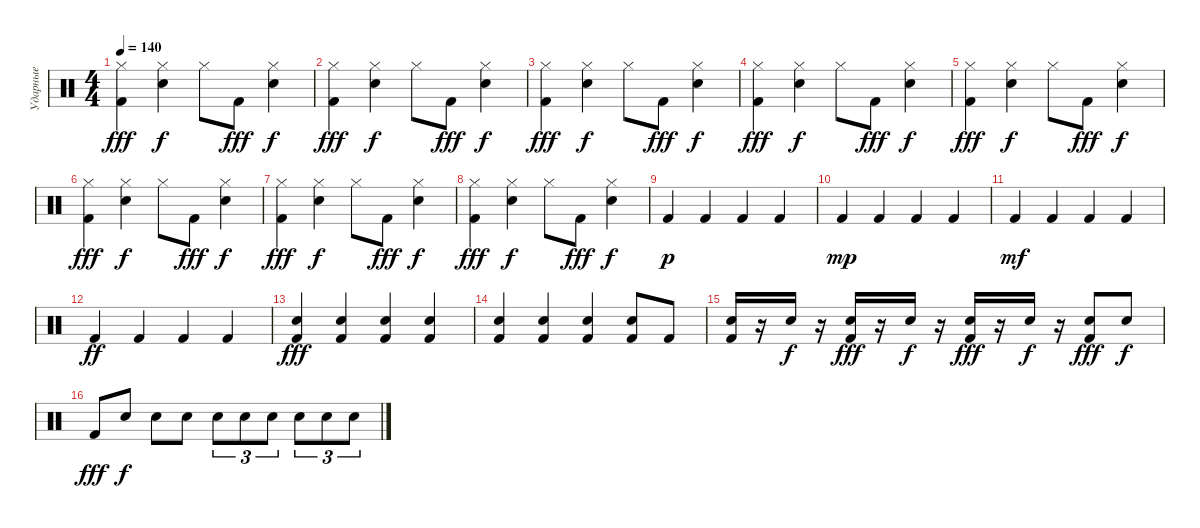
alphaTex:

\track ("Ударные" "Ударные") {instrument percussion}
\staff {score}
\articulation defaults
\ts (4 4)
\tempo 140
\clef neutral
\ks c
("Hi-Hat (closed)" "Kick (hit) 2").4{dy fff} ("Hi-Hat (closed)" "Snare (hit) 2").4{dy f} "Hi-Hat (closed)".8 "Kick (hit) 2".8{dy fff} ("Hi-Hat (closed)" "Snare (hit) 2").4{dy f} |
("Hi-Hat (closed)" "Kick (hit) 2").4{dy fff} ("Hi-Hat (closed)" "Snare (hit) 2").4{dy f} "Hi-Hat (closed)".8 "Kick (hit) 2".8{dy fff} ("Hi-Hat (closed)" "Snare (hit) 2").4{dy f} |
("Hi-Hat (closed)" "Kick (hit) 2").4{dy fff} ("Hi-Hat (closed)" "Snare (hit) 2").4{dy f} "Hi-Hat (closed)".8 "Kick (hit) 2".8{dy fff} ("Hi-Hat (closed)" "Snare (hit) 2").4{dy f} |
("Hi-Hat (closed)" "Kick (hit) 2").4{dy fff} ("Hi-Hat (closed)" "Snare (hit) 2").4{dy f} "Hi-Hat (closed)".8 "Kick (hit) 2".8{dy fff} ("Hi-Hat (closed)" "Snare (hit) 2").4{dy f} |
("Hi-Hat (closed)" "Kick (hit) 2").4{dy fff} ("Hi-Hat (closed)" "Snare (hit) 2").4{dy f} "Hi-Hat (closed)".8 "Kick (hit) 2".8{dy fff} ("Hi-Hat (closed)" "Snare (hit) 2").4{dy f} |
("Hi-Hat (closed)" "Kick (hit) 2").4{dy fff} ("Hi-Hat (closed)" "Snare (hit) 2").4{dy f} "Hi-Hat (closed)".8 "Kick (hit) 2".8{dy fff} ("Hi-Hat (closed)" "Snare (hit) 2").4{dy f} |
("Hi-Hat (closed)" "Kick (hit) 2").4{dy fff} ("Hi-Hat (closed)" "Snare (hit) 2").4{dy f} "Hi-Hat (closed)".8 "Kick (hit) 2".8{dy fff} ("Hi-Hat (closed)" "Snare (hit) 2").4{dy f} |
("Hi-Hat (closed)" "Kick (hit) 2").4{dy fff} ("Hi-Hat (closed)" "Snare (hit) 2").4{dy f} "Hi-Hat (closed)".8 "Kick (hit) 2".8{dy fff} ("Hi-Hat (closed)" "Snare (hit) 2").4{dy f} |
"Kick (hit) 2".4{dy p} "Kick (hit) 2".4 "Kick (hit) 2".4 "Kick (hit) 2".4 |
"Kick (hit) 2".4{dy mp} "Kick (hit) 2".4 "Kick (hit) 2".4 "Kick (hit) 2".4 |
"Kick (hit) 2".4{dy mf} "Kick (hit) 2".4 "Kick (hit) 2".4 "Kick (hit) 2".4 |
"Kick (hit) 2".4{dy ff} "Kick (hit) 2".4 "Kick (hit) 2".4 "Kick (hit) 2".4 |
("Snare (hit) 2" "Kick (hit) 2").4{dy fff} ("Snare (hit) 2" "Kick (hit) 2").4 ("Snare (hit) 2" "Kick (hit) 2").4 ("Snare (hit) 2" "Kick (hit) 2").4 |
("Snare (hit) 2" "Kick (hit) 2").4 ("Snare (hit) 2" "Kick (hit) 2").4 ("Snare (hit) 2" "Kick (hit) 2").4 ("Snare (hit) 2" "Kick (hit) 2").8 "Kick (hit) 2".8 |
("Snare (hit) 2" "Kick (hit) 2").16 r.16 "Snare (hit) 2".16{dy f} r.16 ("Snare (hit) 2" "Kick (hit) 2").16{dy fff} r.16 "Snare (hit) 2".16{dy f} r.16 ("Snare (hit) 2" "Kick (hit) 2").16{dy fff} r.16 "Snare (hit) 2".16{dy f} r.16 ("Snare (hit) 2" "Kick (hit) 2").8{dy fff} "Snare (hit) 2".8{dy f} |
"Kick (hit) 2".8{dy fff} "Snare (hit) 2".8{dy f} "Snare (hit) 2".8 "Snare (hit) 2".8 "Snare (hit) 2".8{tu (3 2)} "Snare (hit) 2".8{tu (3 2)} "Snare (hit) 2".8{tu (3 2)} "Snare (hit) 2".8{tu (3 2)} "Snare (hit) 2".8{tu (3 2)} "Snare (hit) 2".8{tu (3 2)}
